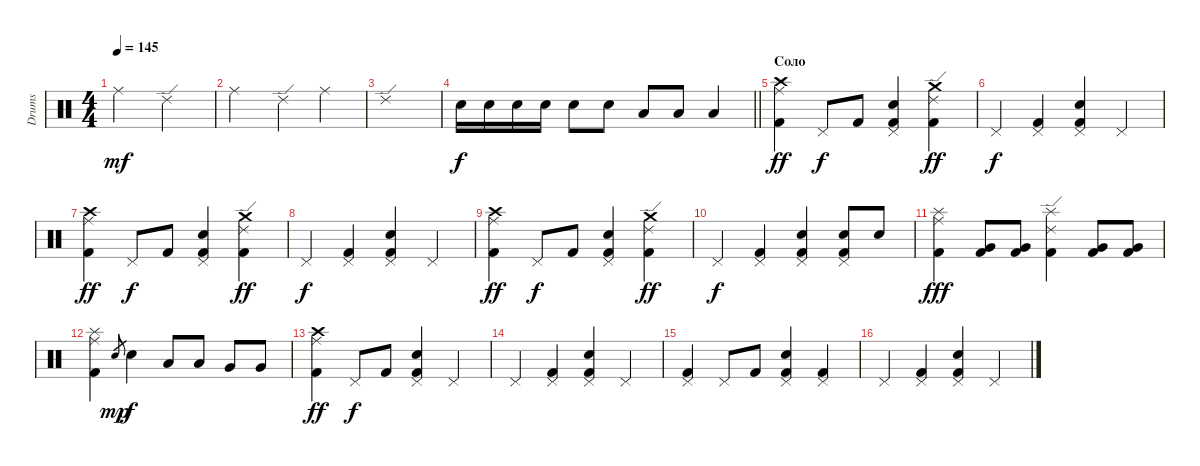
\track ("Drums" "Drums") {instrument percussion}
\staff {score}
\articulation defaults
\ts (4 4)
\tempo 145
\clef neutral
\ks c "Ride (middle)".2{dy mf} "Ride (edge) 2".2
|
"Ride (middle)".2 "Ride (edge) 2".4 "Ride (middle)".4 |
"Ride (edge) 2".1 |
\barLineRight lightlight "Electric Snare (hit)".16{dy f} "Electric Snare (hit)".16 "Electric Snare (hit)".16 "Electric Snare (hit)".16 "Electric Snare (hit)".8 "Electric Snare (hit)".8 "Low Tom (hit)".8 "Low Tom (hit)".8 "Low Tom (hit)".4
|
\section ("" "Соло")
("Crash high (hit)" "Ride (middle)" "Kick (hit) 2").4{dy ff} "Pedal Hi-Hat (hit)".8{dy f} "Kick (hit) 2".8 ("Pedal Hi-Hat (hit)" "Electric Snare (hit)" "Kick (hit) 2").4 ("Crash medium (hit)" "Ride (edge) 2" "Kick (hit) 2").4{dy ff} |
"Pedal Hi-Hat (hit)".4{dy f} ("Pedal Hi-Hat (hit)" "Kick (hit) 2").4 ("Pedal Hi-Hat (hit)" "Electric Snare (hit)" "Kick (hit) 2").4 "Pedal Hi-Hat (hit)".4 |
("Crash high (hit)" "Ride (middle)" "Kick (hit) 2").4{dy ff} "Pedal Hi-Hat (hit)".8{dy f} "Kick (hit) 2".8 ("Pedal Hi-Hat (hit)" "Electric Snare (hit)" "Kick (hit) 2").4 ("Crash medium (hit)" "Ride (edge) 2" "Kick (hit) 2").4{dy ff} |
"Pedal Hi-Hat (hit)".4{dy f} ("Pedal Hi-Hat (hit)" "Kick (hit) 2").4 ("Pedal Hi-Hat (hit)" "Electric Snare (hit)" "Kick (hit) 2").4 "Pedal Hi-Hat (hit)".4 |
("Crash high (hit)" "Ride (middle)" "Kick (hit) 2").4{dy ff} "Pedal Hi-Hat (hit)".8{dy f} "Kick (hit) 2".8 ("Pedal Hi-Hat (hit)" "Electric Snare (hit)" "Kick (hit) 2").4 ("Crash medium (hit)" "Ride (edge) 2" "Kick (hit) 2").4{dy ff} |
"Pedal Hi-Hat (hit)".4{dy f} ("Pedal Hi-Hat (hit)" "Kick (hit) 2").4 ("Pedal Hi-Hat (hit)" "Electric Snare (hit)" "Kick (hit) 2").4 ("Pedal Hi-Hat (hit)" "Electric Snare (hit)" "Kick (hit) 2").8 "Electric Snare (hit)".8 |
("Ride (middle)" "Splash (hit)" "Kick (hit) 2").4{dy fff} ("Very Low Tom (hit)" "Kick (hit) 2").8 ("Very Low Tom (hit)" "Kick (hit) 2").8 ("Ride (edge) 2" "Splash (hit)" "Kick (hit) 2").4 ("Very Low Tom (hit)" "Kick (hit) 2").8 ("Very Low Tom (hit)" "Kick (hit) 2").8 |
("Ride (middle)" "Splash (hit)" "Kick (hit) 2").4 "Electric Snare (hit)".8{gr dy mp} "Electric Snare (hit)".4{dy f} "Low Tom (hit)".8 "Low Tom (hit)".8 "Very Low Tom (hit)".8 "Very Low Tom (hit)".8 |
("Crash high (hit)" "Ride (middle)" "Kick (hit) 2").4{dy ff} "Pedal Hi-Hat (hit)".8{dy f} "Kick (hit) 2".8 ("Pedal Hi-Hat (hit)" "Electric Snare (hit)" "Kick (hit) 2").4 "Pedal Hi-Hat (hit)".4 |
"Pedal Hi-Hat (hit)".4 ("Pedal Hi-Hat (hit)" "Kick (hit) 2").4 ("Pedal Hi-Hat (hit)" "Electric Snare (hit)" "Kick (hit) 2").4 "Pedal Hi-Hat (hit)".4 |
("Pedal Hi-Hat (hit)" "Kick (hit) 2").4 "Pedal Hi-Hat (hit)".8 "Kick (hit) 2".8 ("Pedal Hi-Hat (hit)" "Electric Snare (hit)" "Kick (hit) 2").4 ("Pedal Hi-Hat (hit)" "Kick (hit) 2").4 |
"Pedal Hi-Hat (hit)".4 ("Pedal Hi-Hat (hit)" "Kick (hit) 2").4 ("Pedal Hi-Hat (hit)" "Electric Snare (hit)" "Kick (hit) 2").4 "Pedal Hi-Hat (hit)".4
